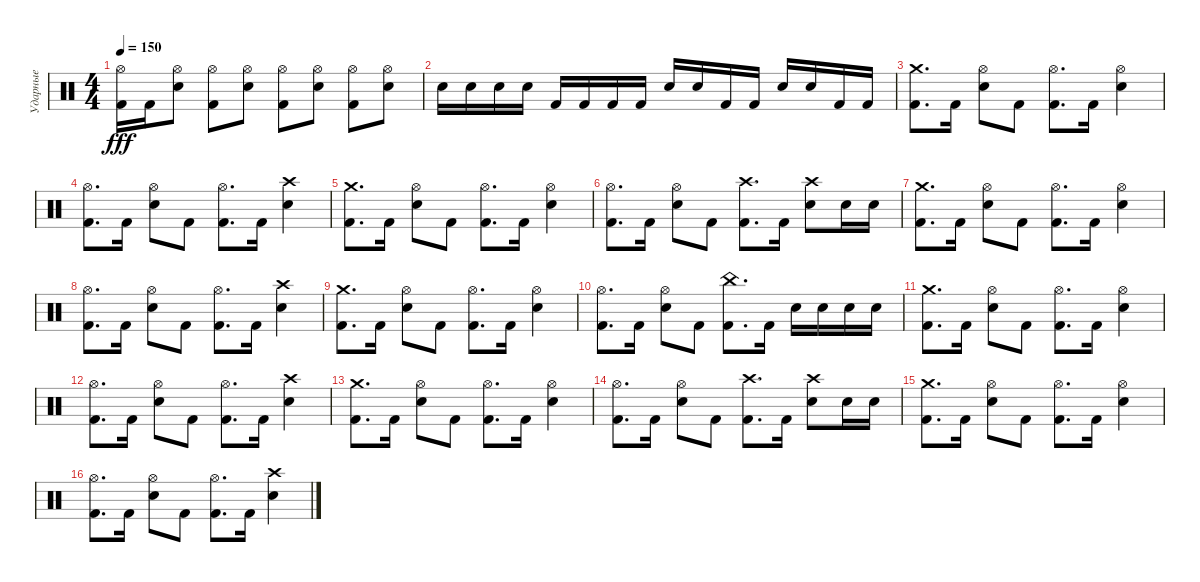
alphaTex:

\track ("Ударные" "Ударные") {instrument percussion}
\staff {score}
\articulation defaults
\ts (4 4)
\tempo 150
\clef neutral
\ks c
("Hi-Hat (open)" "Kick (hit) 2").16{dy fff} "Kick (hit) 2".16 ("Hi-Hat (open)" "Electric Snare (hit)").8 ("Hi-Hat (open)" "Kick (hit) 2").8 ("Hi-Hat (open)" "Electric Snare (hit)").8 ("Hi-Hat (open)" "Kick (hit) 2").8 ("Hi-Hat (open)" "Electric Snare (hit)").8 ("Hi-Hat (open)" "Kick (hit) 2").8 ("Hi-Hat (open)" "Electric Snare (hit)").8 |
"Electric Snare (hit)".16 "Electric Snare (hit)".16 "Electric Snare (hit)".16 "Electric Snare (hit)".16 "Kick (hit) 2".16 "Kick (hit) 2".16 "Kick (hit) 2".16 "Kick (hit) 2".16 "Electric Snare (hit)".16 "Electric Snare (hit)".16 "Kick (hit) 2".16 "Kick (hit) 2".16 "Electric Snare (hit)".16 "Electric Snare (hit)".16 "Kick (hit) 2".16 "Kick (hit) 2".16 |
("Crash medium (hit)" "Kick (hit) 2").8{d} "Kick (hit) 2".16 ("Hi-Hat (open)" "Electric Snare (hit)").8 "Kick (hit) 2".8 ("Hi-Hat (open)" "Kick (hit) 2").8{d} "Kick (hit) 2".16 ("Hi-Hat (open)" "Electric Snare (hit)").4 |
("Hi-Hat (open)" "Kick (hit) 2").8{d} "Kick (hit) 2".16 ("Hi-Hat (open)" "Electric Snare (hit)").8 "Kick (hit) 2".8 ("Hi-Hat (open)" "Kick (hit) 2").8{d} "Kick (hit) 2".16 ("Crash high (hit)" "Electric Snare (hit)").4 |
("Crash medium (hit)" "Kick (hit) 2").8{d} "Kick (hit) 2".16 ("Hi-Hat (open)" "Electric Snare (hit)").8 "Kick (hit) 2".8 ("Hi-Hat (open)" "Kick (hit) 2").8{d} "Kick (hit) 2".16 ("Hi-Hat (open)" "Electric Snare (hit)").4 |
("Hi-Hat (open)" "Kick (hit) 2").8{d} "Kick (hit) 2".16 ("Hi-Hat (open)" "Electric Snare (hit)").8 "Kick (hit) 2".8 ("Crash high (hit)" "Kick (hit) 2").8{d} "Kick (hit) 2".16 ("Crash high (hit)" "Electric Snare (hit)").8 "Electric Snare (hit)".16 "Electric Snare (hit)".16 |
("Crash medium (hit)" "Kick (hit) 2").8{d} "Kick (hit) 2".16 ("Hi-Hat (open)" "Electric Snare (hit)").8 "Kick (hit) 2".8 ("Hi-Hat (open)" "Kick (hit) 2").8{d} "Kick (hit) 2".16 ("Hi-Hat (open)" "Electric Snare (hit)").4 |
("Hi-Hat (open)" "Kick (hit) 2").8{d} "Kick (hit) 2".16 ("Hi-Hat (open)" "Electric Snare (hit)").8 "Kick (hit) 2".8 ("Hi-Hat (open)" "Kick (hit) 2").8{d} "Kick (hit) 2".16 ("Crash high (hit)" "Electric Snare (hit)").4 |
("Crash medium (hit)" "Kick (hit) 2").8{d} "Kick (hit) 2".16 ("Hi-Hat (open)" "Electric Snare (hit)").8 "Kick (hit) 2".8 ("Hi-Hat (open)" "Kick (hit) 2").8{d} "Kick (hit) 2".16 ("Hi-Hat (open)" "Electric Snare (hit)").4 |
("Hi-Hat (open)" "Kick (hit) 2").8{d} "Kick (hit) 2".16 ("Hi-Hat (open)" "Electric Snare (hit)").8 "Kick (hit) 2".8 ("China (hit)" "Kick (hit) 2").8{d} "Kick (hit) 2".16 "Electric Snare (hit)".16 "Electric Snare (hit)".16 "Electric Snare (hit)".16 "Electric Snare (hit)".16 |
("Crash medium (hit)" "Kick (hit) 2").8{d} "Kick (hit) 2".16 ("Hi-Hat (open)" "Electric Snare (hit)").8 "Kick (hit) 2".8 ("Hi-Hat (open)" "Kick (hit) 2").8{d} "Kick (hit) 2".16 ("Hi-Hat (open)" "Electric Snare (hit)").4 |
("Hi-Hat (open)" "Kick (hit) 2").8{d} "Kick (hit) 2".16 ("Hi-Hat (open)" "Electric Snare (hit)").8 "Kick (hit) 2".8 ("Hi-Hat (open)" "Kick (hit) 2").8{d} "Kick (hit) 2".16 ("Crash high (hit)" "Electric Snare (hit)").4 |
("Crash medium (hit)" "Kick (hit) 2").8{d} "Kick (hit) 2".16 ("Hi-Hat (open)" "Electric Snare (hit)").8 "Kick (hit) 2".8 ("Hi-Hat (open)" "Kick (hit) 2").8{d} "Kick (hit) 2".16 ("Hi-Hat (open)" "Electric Snare (hit)").4 |
("Hi-Hat (open)" "Kick (hit) 2").8{d} "Kick (hit) 2".16 ("Hi-Hat (open)" "Electric Snare (hit)").8 "Kick (hit) 2".8 ("Crash high (hit)" "Kick (hit) 2").8{d} "Kick (hit) 2".16 ("Crash high (hit)" "Electric Snare (hit)").8 "Electric Snare (hit)".16 "Electric Snare (hit)".16 |
("Crash medium (hit)" "Kick (hit) 2").8{d} "Kick (hit) 2".16 ("Hi-Hat (open)" "Electric Snare (hit)").8 "Kick (hit) 2".8 ("Hi-Hat (open)" "Kick (hit) 2").8{d} "Kick (hit) 2".16 ("Hi-Hat (open)" "Electric Snare (hit)").4 |
("Hi-Hat (open)" "Kick (hit) 2").8{d} "Kick (hit) 2".16 ("Hi-Hat (open)" "Electric Snare (hit)").8 "Kick (hit) 2".8 ("Hi-Hat (open)" "Kick (hit) 2").8{d} "Kick (hit) 2".16 ("Crash high (hit)" "Electric Snare (hit)").4
